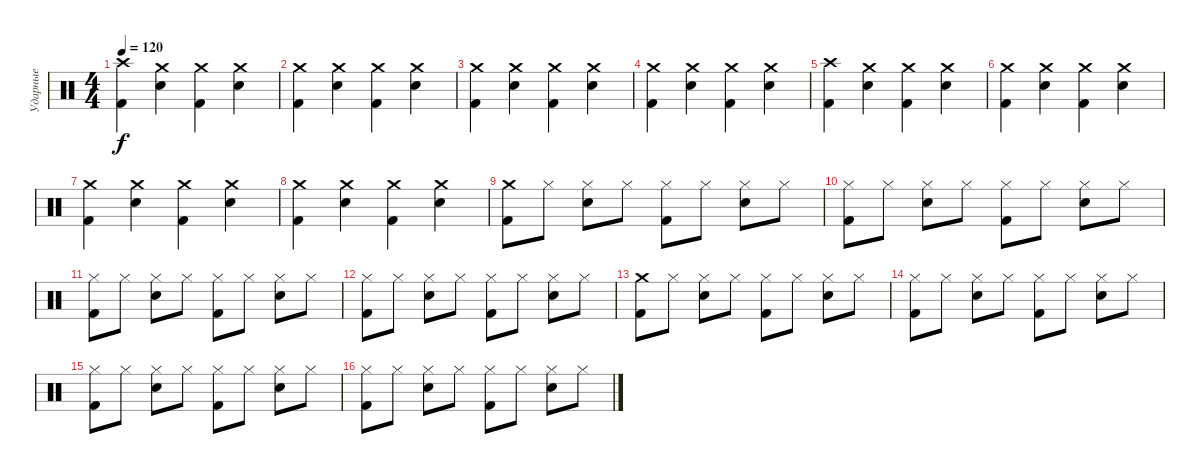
\track ("Ударные" "Ударные") {instrument percussion}
\staff {score}
\articulation defaults
\ts (4 4)
\tempo 120
\clef neutral
\ks c
("Crash high (hit)" "Kick (hit) 2").4{dy f} ("Crash medium (hit)" "Electric Snare (hit)").4 ("Crash medium (hit)" "Kick (hit) 2").4 ("Crash medium (hit)" "Electric Snare (hit)").4 |
("Crash medium (hit)" "Kick (hit) 2").4 ("Crash medium (hit)" "Electric Snare (hit)").4 ("Crash medium (hit)" "Kick (hit) 2").4 ("Crash medium (hit)" "Electric Snare (hit)").4 |
("Crash medium (hit)" "Kick (hit) 2").4 ("Crash medium (hit)" "Electric Snare (hit)").4 ("Crash medium (hit)" "Kick (hit) 2").4 ("Crash medium (hit)" "Electric Snare (hit)").4 |
("Crash medium (hit)" "Kick (hit) 2").4 ("Crash medium (hit)" "Electric Snare (hit)").4 ("Crash medium (hit)" "Kick (hit) 2").4 ("Crash medium (hit)" "Electric Snare (hit)").4 |
("Crash high (hit)" "Kick (hit) 2").4 ("Crash medium (hit)" "Electric Snare (hit)").4 ("Crash medium (hit)" "Kick (hit) 2").4 ("Crash medium (hit)" "Electric Snare (hit)").4 |
("Crash medium (hit)" "Kick (hit) 2").4 ("Crash medium (hit)" "Electric Snare (hit)").4 ("Crash medium (hit)" "Kick (hit) 2").4 ("Crash medium (hit)" "Electric Snare (hit)").4 |
("Crash medium (hit)" "Kick (hit) 2").4 ("Crash medium (hit)" "Electric Snare (hit)").4 ("Crash medium (hit)" "Kick (hit) 2").4 ("Crash medium (hit)" "Electric Snare (hit)").4 |
("Crash medium (hit)" "Kick (hit) 2").4 ("Crash medium (hit)" "Electric Snare (hit)").4 ("Crash medium (hit)" "Kick (hit) 2").4 ("Crash medium (hit)" "Electric Snare (hit)").4 |
("Crash medium (hit)" "Kick (hit) 2").8 "Hi-Hat (closed)".8 ("Hi-Hat (closed)" "Electric Snare (hit)").8 "Hi-Hat (closed)".8 ("Hi-Hat (closed)" "Kick (hit) 2").8 "Hi-Hat (closed)".8 ("Hi-Hat (closed)" "Electric Snare (hit)").8 "Hi-Hat (closed)".8 |
("Hi-Hat (closed)" "Kick (hit) 2").8 "Hi-Hat (closed)".8 ("Hi-Hat (closed)" "Electric Snare (hit)").8 "Hi-Hat (closed)".8 ("Hi-Hat (closed)" "Kick (hit) 2").8 "Hi-Hat (closed)".8 ("Hi-Hat (closed)" "Electric Snare (hit)").8 "Hi-Hat (closed)".8 |
("Hi-Hat (closed)" "Kick (hit) 2").8 "Hi-Hat (closed)".8 ("Hi-Hat (closed)" "Electric Snare (hit)").8 "Hi-Hat (closed)".8 ("Hi-Hat (closed)" "Kick (hit) 2").8 "Hi-Hat (closed)".8 ("Hi-Hat (closed)" "Electric Snare (hit)").8 "Hi-Hat (closed)".8 |
("Hi-Hat (closed)" "Kick (hit) 2").8 "Hi-Hat (closed)".8 ("Hi-Hat (closed)" "Electric Snare (hit)").8 "Hi-Hat (closed)".8 ("Hi-Hat (closed)" "Kick (hit) 2").8 "Hi-Hat (closed)".8 ("Hi-Hat (closed)" "Electric Snare (hit)").8 "Hi-Hat (closed)".8 |
("Crash medium (hit)" "Kick (hit) 2").8 "Hi-Hat (closed)".8 ("Hi-Hat (closed)" "Electric Snare (hit)").8 "Hi-Hat (closed)".8 ("Hi-Hat (closed)" "Kick (hit) 2").8 "Hi-Hat (closed)".8 ("Hi-Hat (closed)" "Electric Snare (hit)").8 "Hi-Hat (closed)".8 |
("Hi-Hat (closed)" "Kick (hit) 2").8 "Hi-Hat (closed)".8 ("Hi-Hat (closed)" "Electric Snare (hit)").8 "Hi-Hat (closed)".8 ("Hi-Hat (closed)" "Kick (hit) 2").8 "Hi-Hat (closed)".8 ("Hi-Hat (closed)" "Electric Snare (hit)").8 "Hi-Hat (closed)".8 |
("Hi-Hat (closed)" "Kick (hit) 2").8 "Hi-Hat (closed)".8 ("Hi-Hat (closed)" "Electric Snare (hit)").8 "Hi-Hat (closed)".8 ("Hi-Hat (closed)" "Kick (hit) 2").8 "Hi-Hat (closed)".8 ("Hi-Hat (closed)" "Electric Snare (hit)").8 "Hi-Hat (closed)".8 |
("Hi-Hat (closed)" "Kick (hit) 2").8 "Hi-Hat (closed)".8 ("Hi-Hat (closed)" "Electric Snare (hit)").8 "Hi-Hat (closed)".8 ("Hi-Hat (closed)" "Kick (hit) 2").8 "Hi-Hat (closed)".8 ("Hi-Hat (closed)" "Electric Snare (hit)").8 "Hi-Hat (closed)".8
